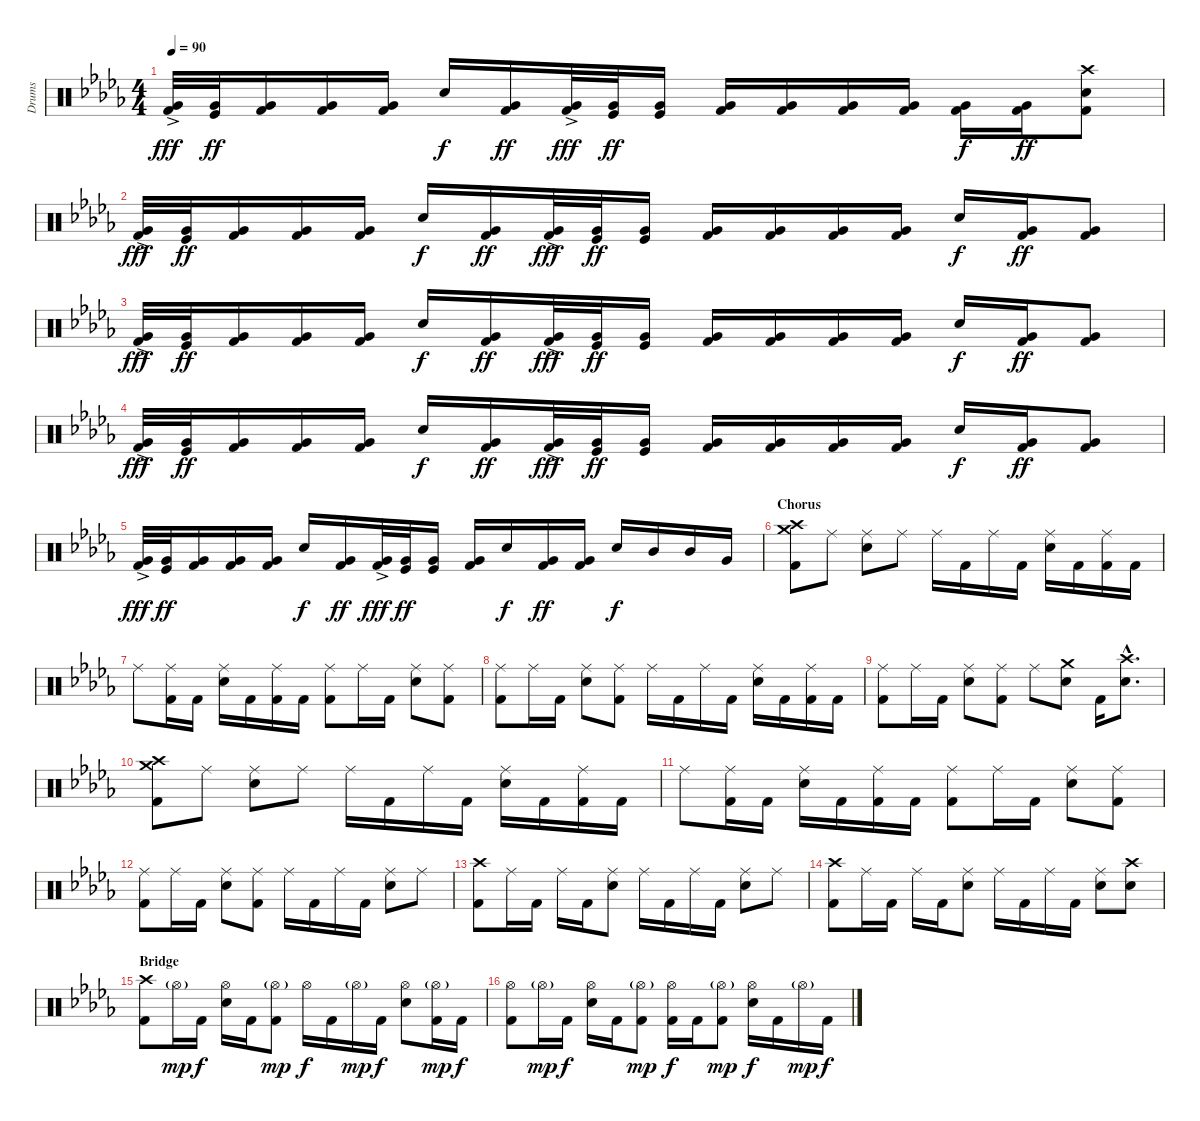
\track ("Drums" "Drums") {instrument percussion}
\staff {score}
\articulation defaults
\ts (4 4)
\tempo 90
\clef neutral
\ks db
("Very Low Tom (hit)"{ac} "Kick (hit) 2"{ac}).32{dy fff} ("Very Low Tom (hit)" "Kick (hit)").32{dy ff} ("Very Low Tom (hit)" "Kick (hit) 2").16 ("Very Low Tom (hit)" "Kick (hit) 2").16 ("Very Low Tom (hit)" "Kick (hit) 2").16 "Electric Snare (hit)".16{dy f} ("Very Low Tom (hit)" "Kick (hit) 2").16{dy ff} ("Very Low Tom (hit)"{ac} "Kick (hit) 2"{ac}).32{dy fff} ("Very Low Tom (hit)" "Kick (hit)").32{dy ff} ("Very Low Tom (hit)" "Kick (hit)").16 ("Very Low Tom (hit)" "Kick (hit) 2").16 ("Very Low Tom (hit)" "Kick (hit) 2").16 ("Very Low Tom (hit)" "Kick (hit) 2").16 ("Very Low Tom (hit)" "Kick (hit) 2").16 ("Very Low Tom (hit)" "Kick (hit) 2").16{dy f} ("Very Low Tom (hit)" "Kick (hit) 2").16{dy ff} ("Crash high (hit)" "Electric Snare (hit)" "Kick (hit) 2").8 |
("Very Low Tom (hit)"{ac} "Kick (hit) 2"{ac}).32{dy fff} ("Very Low Tom (hit)" "Kick (hit)").32{dy ff} ("Very Low Tom (hit)" "Kick (hit) 2").16 ("Very Low Tom (hit)" "Kick (hit) 2").16 ("Very Low Tom (hit)" "Kick (hit) 2").16 "Electric Snare (hit)".16{dy f} ("Very Low Tom (hit)" "Kick (hit) 2").16{dy ff} ("Very Low Tom (hit)"{ac} "Kick (hit) 2"{ac}).32{dy fff} ("Very Low Tom (hit)" "Kick (hit)").32{dy ff} ("Very Low Tom (hit)" "Kick (hit)").16 ("Very Low Tom (hit)" "Kick (hit) 2").16 ("Very Low Tom (hit)" "Kick (hit) 2").16 ("Very Low Tom (hit)" "Kick (hit) 2").16 ("Very Low Tom (hit)" "Kick (hit) 2").16 "Electric Snare (hit)".16{dy f} ("Very Low Tom (hit)" "Kick (hit) 2").16{dy ff} ("Very Low Tom (hit)" "Kick (hit) 2").8 |
("Very Low Tom (hit)"{ac} "Kick (hit) 2"{ac}).32{dy fff} ("Very Low Tom (hit)" "Kick (hit)").32{dy ff} ("Very Low Tom (hit)" "Kick (hit) 2").16 ("Very Low Tom (hit)" "Kick (hit) 2").16 ("Very Low Tom (hit)" "Kick (hit) 2").16 "Electric Snare (hit)".16{dy f} ("Very Low Tom (hit)" "Kick (hit) 2").16{dy ff} ("Very Low Tom (hit)"{ac} "Kick (hit) 2"{ac}).32{dy fff} ("Very Low Tom (hit)" "Kick (hit)").32{dy ff} ("Very Low Tom (hit)" "Kick (hit)").16 ("Very Low Tom (hit)" "Kick (hit) 2").16 ("Very Low Tom (hit)" "Kick (hit) 2").16 ("Very Low Tom (hit)" "Kick (hit) 2").16 ("Very Low Tom (hit)" "Kick (hit) 2").16 "Electric Snare (hit)".16{dy f} ("Very Low Tom (hit)" "Kick (hit) 2").16{dy ff} ("Very Low Tom (hit)" "Kick (hit) 2").8 |
("Very Low Tom (hit)"{ac} "Kick (hit) 2"{ac}).32{dy fff} ("Very Low Tom (hit)" "Kick (hit)").32{dy ff} ("Very Low Tom (hit)" "Kick (hit) 2").16 ("Very Low Tom (hit)" "Kick (hit) 2").16 ("Very Low Tom (hit)" "Kick (hit) 2").16 "Electric Snare (hit)".16{dy f} ("Very Low Tom (hit)" "Kick (hit) 2").16{dy ff} ("Very Low Tom (hit)"{ac} "Kick (hit) 2"{ac}).32{dy fff} ("Very Low Tom (hit)" "Kick (hit)").32{dy ff} ("Very Low Tom (hit)" "Kick (hit)").16 ("Very Low Tom (hit)" "Kick (hit) 2").16 ("Very Low Tom (hit)" "Kick (hit) 2").16 ("Very Low Tom (hit)" "Kick (hit) 2").16 ("Very Low Tom (hit)" "Kick (hit) 2").16 "Electric Snare (hit)".16{dy f} ("Very Low Tom (hit)" "Kick (hit) 2").16{dy ff} ("Very Low Tom (hit)" "Kick (hit) 2").8 |
("Very Low Tom (hit)"{ac} "Kick (hit) 2"{ac}).32{dy fff} ("Very Low Tom (hit)" "Kick (hit)").32{dy ff} ("Very Low Tom (hit)" "Kick (hit) 2").16 ("Very Low Tom (hit)" "Kick (hit) 2").16 ("Very Low Tom (hit)" "Kick (hit) 2").16 "Electric Snare (hit)".16{dy f} ("Very Low Tom (hit)" "Kick (hit) 2").16{dy ff} ("Very Low Tom (hit)"{ac} "Kick (hit) 2"{ac}).32{dy fff} ("Very Low Tom (hit)" "Kick (hit)").32{dy ff} ("Very Low Tom (hit)" "Kick (hit)").16 ("Very Low Tom (hit)" "Kick (hit) 2").16 "Electric Snare (hit)".16{dy f} ("Very Low Tom (hit)" "Kick (hit) 2").16{dy ff} ("Very Low Tom (hit)" "Kick (hit) 2").16 "Electric Snare (hit)".16{dy f} "Mid Tom (hit)".16 "Mid Tom (hit)".16 "Very Low Tom (hit)".16 |
\section ("" "Chorus")
("Crash high (hit)" "Crash medium (hit)" "Kick (hit) 2").8 "Ride (middle)".8 ("Ride (middle)" "Electric Snare (hit)").8 "Ride (middle)".8 "Ride (middle)".16 "Kick (hit) 2".16 "Ride (middle)".16 "Kick (hit) 2".16 ("Ride (middle)" "Electric Snare (hit)").16 "Kick (hit) 2".16 ("Ride (middle)" "Kick (hit) 2").16 "Kick (hit) 2".16 |
"Ride (middle)".8 ("Ride (middle)" "Kick (hit) 2").16 "Kick (hit) 2".16 ("Ride (middle)" "Electric Snare (hit)").16 "Kick (hit) 2".16 ("Ride (middle)" "Kick (hit) 2").16 "Kick (hit) 2".16 ("Ride (middle)" "Kick (hit) 2").8 "Ride (middle)".16 "Kick (hit) 2".16 ("Ride (middle)" "Electric Snare (hit)").8 ("Ride (middle)" "Kick (hit) 2").8 |
("Ride (middle)" "Kick (hit) 2").8 "Ride (middle)".16 "Kick (hit) 2".16 ("Ride (middle)" "Electric Snare (hit)").8 ("Ride (middle)" "Kick (hit) 2").8 "Ride (middle)".16 "Kick (hit) 2".16 "Ride (middle)".16 "Kick (hit) 2".16 ("Ride (middle)" "Electric Snare (hit)").16 "Kick (hit) 2".16 ("Ride (middle)" "Kick (hit) 2").16 "Kick (hit) 2".16 |
("Ride (middle)" "Kick (hit) 2").8 "Ride (middle)".16 "Kick (hit) 2".16 ("Ride (middle)" "Electric Snare (hit)").8 ("Ride (middle)" "Kick (hit) 2").8 "Ride (middle)".8 ("Crash medium (hit)" "Electric Snare (hit)").8 "Kick (hit) 2".16 ("Crash high (hit)"{hac} "Electric Snare (hit)"{hac}).8{d} |
("Crash high (hit)" "Crash medium (hit)" "Kick (hit) 2").8 "Ride (middle)".8 ("Ride (middle)" "Electric Snare (hit)").8 "Ride (middle)".8 "Ride (middle)".16 "Kick (hit) 2".16 "Ride (middle)".16 "Kick (hit) 2".16 ("Ride (middle)" "Electric Snare (hit)").16 "Kick (hit) 2".16 ("Ride (middle)" "Kick (hit) 2").16 "Kick (hit) 2".16 |
"Ride (middle)".8 ("Ride (middle)" "Kick (hit) 2").16 "Kick (hit) 2".16 ("Ride (middle)" "Electric Snare (hit)").16 "Kick (hit) 2".16 ("Ride (middle)" "Kick (hit) 2").16 "Kick (hit) 2".16 ("Ride (middle)" "Kick (hit) 2").8 "Ride (middle)".16 "Kick (hit) 2".16 ("Ride (middle)" "Electric Snare (hit)").8 ("Ride (middle)" "Kick (hit) 2").8 |
("Ride (middle)" "Kick (hit) 2").8 "Ride (middle)".16 "Kick (hit) 2".16 ("Ride (middle)" "Electric Snare (hit)").8 ("Ride (middle)" "Kick (hit) 2").8 "Ride (middle)".16 "Kick (hit) 2".16 "Ride (middle)".16 "Kick (hit) 2".16 ("Ride (middle)" "Electric Snare (hit)").8 "Ride (middle)".8 |
("Crash high (hit)" "Kick (hit) 2").8 "Ride (middle)".16 "Kick (hit) 2".16 "Ride (middle)".16 "Kick (hit) 2".16 ("Ride (middle)" "Electric Snare (hit)").8 "Ride (middle)".16 "Kick (hit) 2".16 "Ride (middle)".16 "Kick (hit) 2".16 ("Ride (middle)" "Electric Snare (hit)").8 "Ride (middle)".8 |
("Crash high (hit)" "Kick (hit) 2").8 "Ride (middle)".16 "Kick (hit) 2".16 "Ride (middle)".16 "Kick (hit) 2".16 ("Ride (middle)" "Electric Snare (hit)").8 "Ride (middle)".16 "Kick (hit) 2".16 "Ride (middle)".16 "Kick (hit) 2".16 ("Ride (middle)" "Electric Snare (hit)").8 ("Crash high (hit)" "Electric Snare (hit)").8 |
\section ("" "Bridge")
("Crash high (hit)" "Kick (hit) 2").8 "Hi-Hat (open)"{g}.16{dy mp} "Kick (hit) 2".16{dy f} ("Hi-Hat (open)" "Electric Snare (hit)").16 "Kick (hit) 2".16 ("Hi-Hat (open)"{g} "Kick (hit) 2").8{dy mp} "Hi-Hat (open)".16{dy f} "Kick (hit) 2".16 "Hi-Hat (open)"{g}.16{dy mp} "Kick (hit) 2".16{dy f} ("Hi-Hat (open)" "Electric Snare (hit)").8 ("Hi-Hat (open)"{g} "Kick (hit) 2").16{dy mp} "Kick (hit) 2".16{dy f} |
("Hi-Hat (open)" "Kick (hit) 2").8 "Hi-Hat (open)"{g}.16{dy mp} "Kick (hit) 2".16{dy f} ("Hi-Hat (open)" "Electric Snare (hit)").16 "Kick (hit) 2".16 ("Hi-Hat (open)"{g} "Kick (hit) 2").8{dy mp} ("Hi-Hat (open)" "Kick (hit) 2").16{dy f} "Kick (hit) 2".16 ("Hi-Hat (open)"{g} "Kick (hit) 2").8{dy mp} ("Hi-Hat (open)" "Electric Snare (hit)").16{dy f} "Kick (hit) 2".16 "Hi-Hat (open)"{g}.16{dy mp} "Kick (hit) 2".16{dy f}
